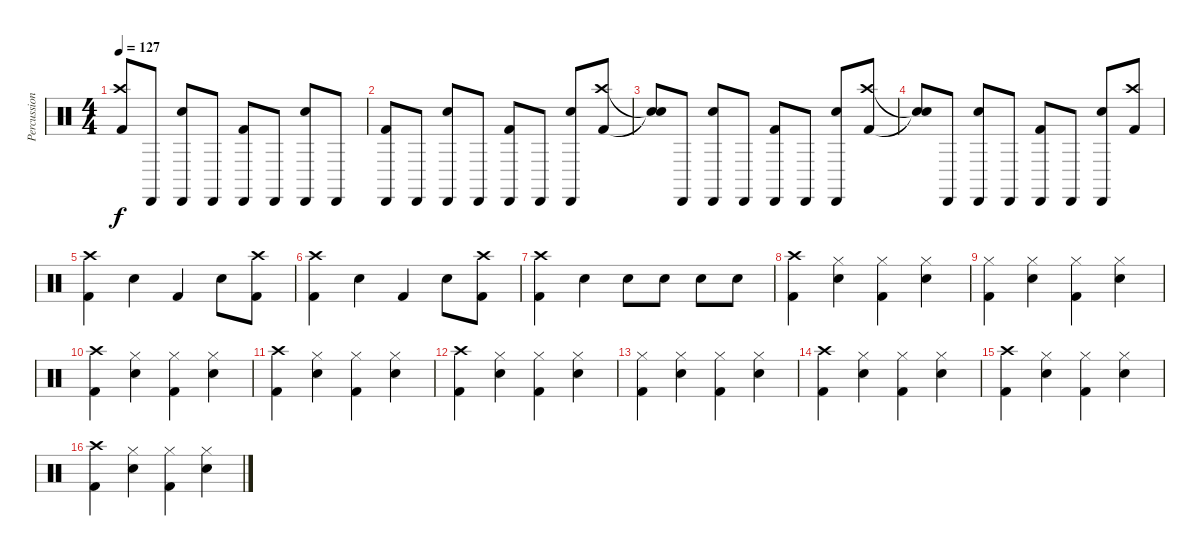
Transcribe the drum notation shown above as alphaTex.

\track ("Percussion" "Percussion") {instrument percussion}
\staff {score}
\articulation defaults
\ts (4 4)
\tempo 127
\clef neutral
\ks c
("Kick (hit) 2" "Crash high (hit)").8{dy f} "Cabasa (hit)".8 ("Snare (hit) 2" "Cabasa (hit)").8 "Cabasa (hit)".8 ("Kick (hit) 2" "Cabasa (hit)").8 "Cabasa (hit)".8 ("Snare (hit) 2" "Cabasa (hit)").8 "Cabasa (hit)".8 |
("Kick (hit) 2" "Cabasa (hit)").8 "Cabasa (hit)".8 ("Snare (hit) 2" "Cabasa (hit)").8 "Cabasa (hit)".8 ("Kick (hit) 2" "Cabasa (hit)").8 "Cabasa (hit)".8 ("Snare (hit) 2" "Cabasa (hit)").8 ("Kick (hit) 2" "Crash high (hit)").8 |
("Snare (hit)"{t} "Snare (hit)"{t}).8 "Cabasa (hit)".8 ("Snare (hit) 2" "Cabasa (hit)").8 "Cabasa (hit)".8 ("Kick (hit) 2" "Cabasa (hit)").8 "Cabasa (hit)".8 ("Snare (hit) 2" "Cabasa (hit)").8 ("Kick (hit) 2" "Crash high (hit)").8 |
("Snare (hit)"{t} "Snare (hit)"{t}).8 "Cabasa (hit)".8 ("Snare (hit) 2" "Cabasa (hit)").8 "Cabasa (hit)".8 ("Kick (hit) 2" "Cabasa (hit)").8 "Cabasa (hit)".8 ("Snare (hit) 2" "Cabasa (hit)").8 ("Kick (hit) 2" "Crash high (hit)").8 |
("Kick (hit) 2" "Crash high (hit)").4 "Snare (hit) 2".4 "Kick (hit) 2".4 "Snare (hit) 2".8 ("Kick (hit) 2" "Crash high (hit)").8 |
("Kick (hit) 2" "Crash high (hit)").4 "Snare (hit) 2".4 "Kick (hit) 2".4 "Snare (hit) 2".8 ("Kick (hit) 2" "Crash high (hit)").8 |
("Kick (hit) 2" "Crash high (hit)").4 "Snare (hit) 2".4 "Snare (hit) 2".8 "Snare (hit) 2".8 "Snare (hit) 2".8 "Snare (hit) 2".8 |
("Kick (hit) 2" "Crash high (hit)").4 ("Snare (hit) 2" "Hi-Hat (closed)").4 ("Kick (hit) 2" "Hi-Hat (closed)").4 ("Snare (hit) 2" "Hi-Hat (closed)").4 |
("Kick (hit) 2" "Hi-Hat (closed)").4 ("Snare (hit) 2" "Hi-Hat (closed)").4 ("Kick (hit) 2" "Hi-Hat (closed)").4 ("Snare (hit) 2" "Hi-Hat (closed)").4 |
("Kick (hit) 2" "Crash high (hit)").4 ("Snare (hit) 2" "Hi-Hat (closed)").4 ("Kick (hit) 2" "Hi-Hat (closed)").4 ("Snare (hit) 2" "Hi-Hat (closed)").4 |
("Kick (hit) 2" "Crash high (hit)").4 ("Snare (hit) 2" "Hi-Hat (closed)").4 ("Kick (hit) 2" "Hi-Hat (closed)").4 ("Snare (hit) 2" "Hi-Hat (closed)").4 |
("Kick (hit) 2" "Crash high (hit)").4 ("Snare (hit) 2" "Hi-Hat (closed)").4 ("Kick (hit) 2" "Hi-Hat (closed)").4 ("Snare (hit) 2" "Hi-Hat (closed)").4 |
("Kick (hit) 2" "Hi-Hat (closed)").4 ("Snare (hit) 2" "Hi-Hat (closed)").4 ("Kick (hit) 2" "Hi-Hat (closed)").4 ("Snare (hit) 2" "Hi-Hat (closed)").4 |
("Kick (hit) 2" "Crash high (hit)").4 ("Snare (hit) 2" "Hi-Hat (closed)").4 ("Kick (hit) 2" "Hi-Hat (closed)").4 ("Snare (hit) 2" "Hi-Hat (closed)").4 |
("Kick (hit) 2" "Crash high (hit)").4 ("Snare (hit) 2" "Hi-Hat (closed)").4 ("Kick (hit) 2" "Hi-Hat (closed)").4 ("Snare (hit) 2" "Hi-Hat (closed)").4 |
("Kick (hit) 2" "Crash high (hit)").4 ("Snare (hit) 2" "Hi-Hat (closed)").4 ("Kick (hit) 2" "Hi-Hat (closed)").4 ("Snare (hit) 2" "Hi-Hat (closed)").4
